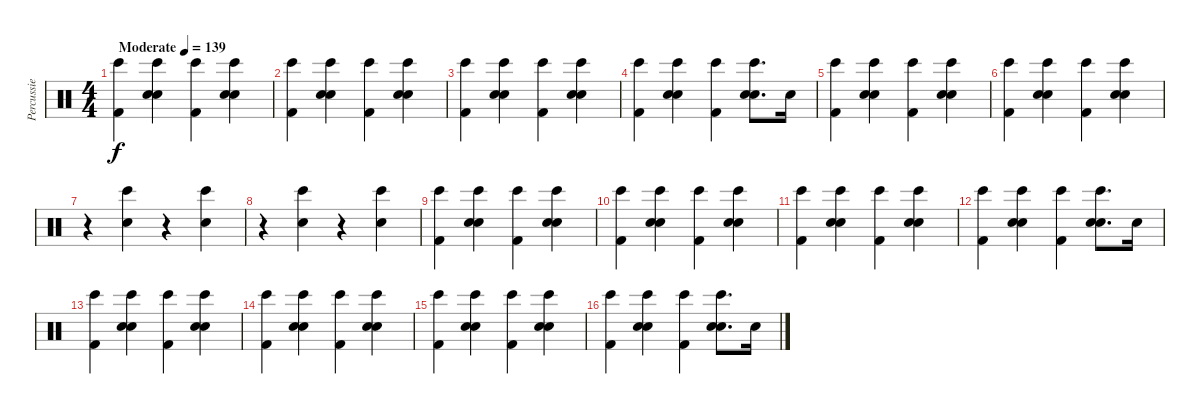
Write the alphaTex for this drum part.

\track ("Percussie" "Percussie") {instrument percussion}
\staff {score}
\articulation defaults
\ts (4 4)
\tempo (139 "Moderate")
\clef neutral
\ks c
("Bongo High (hit)" "Kick (hit) 2").4{dy f} ("Bongo High (hit)" "Hand Clap (hit)" "Electric Snare (hit)").4 ("Bongo High (hit)" "Kick (hit) 2").4 ("Bongo High (hit)" "Hand Clap (hit)" "Electric Snare (hit)").4 |
("Bongo High (hit)" "Kick (hit) 2").4 ("Bongo High (hit)" "Hand Clap (hit)" "Electric Snare (hit)").4 ("Bongo High (hit)" "Kick (hit) 2").4 ("Bongo High (hit)" "Hand Clap (hit)" "Electric Snare (hit)").4 |
("Bongo High (hit)" "Kick (hit) 2").4 ("Bongo High (hit)" "Hand Clap (hit)" "Electric Snare (hit)").4 ("Bongo High (hit)" "Kick (hit) 2").4 ("Bongo High (hit)" "Hand Clap (hit)" "Electric Snare (hit)").4 |
("Bongo High (hit)" "Kick (hit) 2").4 ("Bongo High (hit)" "Hand Clap (hit)" "Electric Snare (hit)").4 ("Bongo High (hit)" "Kick (hit) 2").4 ("Bongo High (hit)" "Hand Clap (hit)" "Electric Snare (hit)").8{d} "Hand Clap (hit)".16 |
("Bongo High (hit)" "Kick (hit) 2").4 ("Bongo High (hit)" "Hand Clap (hit)" "Electric Snare (hit)").4 ("Bongo High (hit)" "Kick (hit) 2").4 ("Bongo High (hit)" "Hand Clap (hit)" "Electric Snare (hit)").4 |
("Bongo High (hit)" "Kick (hit) 2").4 ("Bongo High (hit)" "Hand Clap (hit)" "Electric Snare (hit)").4 ("Bongo High (hit)" "Kick (hit) 2").4 ("Bongo High (hit)" "Hand Clap (hit)" "Electric Snare (hit)").4 |
r.4 ("Bongo High (hit)" "Hand Clap (hit)").4 r.4 ("Bongo High (hit)" "Hand Clap (hit)").4 |
r.4 ("Bongo High (hit)" "Hand Clap (hit)").4 r.4 ("Bongo High (hit)" "Hand Clap (hit)").4 |
("Bongo High (hit)" "Kick (hit) 2").4 ("Bongo High (hit)" "Hand Clap (hit)" "Electric Snare (hit)").4 ("Bongo High (hit)" "Kick (hit) 2").4 ("Bongo High (hit)" "Hand Clap (hit)" "Electric Snare (hit)").4 |
("Bongo High (hit)" "Kick (hit) 2").4 ("Bongo High (hit)" "Hand Clap (hit)" "Electric Snare (hit)").4 ("Bongo High (hit)" "Kick (hit) 2").4 ("Bongo High (hit)" "Hand Clap (hit)" "Electric Snare (hit)").4 |
("Bongo High (hit)" "Kick (hit) 2").4 ("Bongo High (hit)" "Hand Clap (hit)" "Electric Snare (hit)").4 ("Bongo High (hit)" "Kick (hit) 2").4 ("Bongo High (hit)" "Hand Clap (hit)" "Electric Snare (hit)").4 |
("Bongo High (hit)" "Kick (hit) 2").4 ("Bongo High (hit)" "Hand Clap (hit)" "Electric Snare (hit)").4 ("Bongo High (hit)" "Kick (hit) 2").4 ("Bongo High (hit)" "Hand Clap (hit)" "Electric Snare (hit)").8{d} "Hand Clap (hit)".16 |
("Bongo High (hit)" "Kick (hit) 2").4 ("Bongo High (hit)" "Hand Clap (hit)" "Electric Snare (hit)").4 ("Bongo High (hit)" "Kick (hit) 2").4 ("Bongo High (hit)" "Hand Clap (hit)" "Electric Snare (hit)").4 |
("Bongo High (hit)" "Kick (hit) 2").4 ("Bongo High (hit)" "Hand Clap (hit)" "Electric Snare (hit)").4 ("Bongo High (hit)" "Kick (hit) 2").4 ("Bongo High (hit)" "Hand Clap (hit)" "Electric Snare (hit)").4 |
("Bongo High (hit)" "Kick (hit) 2").4 ("Bongo High (hit)" "Hand Clap (hit)" "Electric Snare (hit)").4 ("Bongo High (hit)" "Kick (hit) 2").4 ("Bongo High (hit)" "Hand Clap (hit)" "Electric Snare (hit)").4 |
("Bongo High (hit)" "Kick (hit) 2").4 ("Bongo High (hit)" "Hand Clap (hit)" "Electric Snare (hit)").4 ("Bongo High (hit)" "Kick (hit) 2").4 ("Bongo High (hit)" "Hand Clap (hit)" "Electric Snare (hit)").8{d} "Hand Clap (hit)".16
